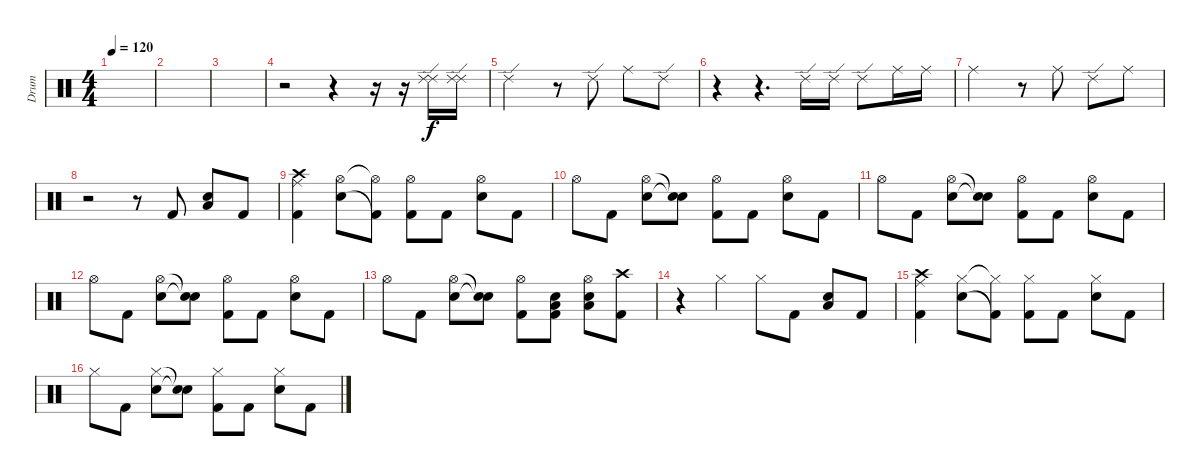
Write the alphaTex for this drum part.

\track ("Drum" "Drum") {instrument percussion}
\staff {score}
\articulation defaults
\ts (4 4)
\tempo 120
\clef neutral
\ks c
|
|
|
r.2 r.4 r.16 r.16 ("Ride (edge) 2" "Ride (edge) 2").16 ("Ride (edge) 2" "Ride (edge) 2").16 |
"Ride (edge) 2".2 r.8 "Ride (edge) 2".8 "Ride (middle)".8 "Ride (edge) 2".8 |
r.4 r.4{d} "Ride (edge) 2".16 "Ride (edge) 2".16 "Ride (edge) 2".8 "Ride (middle)".16 "Ride (middle)".16 |
"Ride (middle)".2 r.8 "Ride (middle)".8 "Ride (edge) 2".8 "Ride (middle)".8 |
r.2 r.8 "Kick (hit) 2".8 ("Electric Snare (hit)" "Low Floor Tom (hit)").8 "Kick (hit) 2".8 |
("Crash high (hit)" "Ride (middle)" "Kick (hit) 2").4 ("Hi-Hat (open)" "Electric Snare (hit)").8 ("Hi-Hat (open)"{t} "Kick (hit) 2"{t}).8 ("Hi-Hat (open)" "Kick (hit) 2").8 "Kick (hit) 2".8 ("Hi-Hat (open)" "Electric Snare (hit)").8 "Kick (hit) 2".8 |
"Hi-Hat (open)".8 "Kick (hit) 2".8 ("Hi-Hat (open)" "Electric Snare (hit)").8 ("Snare (hit)"{t} "Snare (hit)"{t}).8 ("Hi-Hat (open)" "Kick (hit) 2").8 "Kick (hit) 2".8 ("Hi-Hat (open)" "Electric Snare (hit)").8 "Kick (hit) 2".8 |
"Hi-Hat (open)".8 "Kick (hit) 2".8 ("Hi-Hat (open)" "Electric Snare (hit)").8 ("Snare (hit)"{t} "Electric Snare (hit)"{t}).8 ("Hi-Hat (open)" "Kick (hit) 2").8 "Kick (hit) 2".8 ("Hi-Hat (open)" "Electric Snare (hit)").8 "Kick (hit) 2".8 |
"Hi-Hat (open)".8 "Kick (hit) 2".8 ("Hi-Hat (open)" "Electric Snare (hit)").8 ("Snare (hit)"{t} "Snare (hit)"{t}).8 ("Hi-Hat (open)" "Kick (hit) 2").8 "Kick (hit) 2".8 ("Hi-Hat (open)" "Electric Snare (hit)").8 "Kick (hit) 2".8 |
"Hi-Hat (open)".8 "Kick (hit) 2".8 ("Hi-Hat (open)" "Electric Snare (hit)").8 ("Snare (hit)"{t} "Electric Snare (hit)"{t}).8 ("Hi-Hat (open)" "Kick (hit) 2").8 ("Electric Snare (hit)" "Low Floor Tom (hit)" "Kick (hit) 2").8 ("Hi-Hat (open)" "Electric Snare (hit)" "Low Floor Tom (hit)").8 ("Crash high (hit)" "Kick (hit) 2").8 |
r.4 "Hi-Hat (closed)".4 "Hi-Hat (closed)".8 "Kick (hit) 2".8 ("Electric Snare (hit)" "Low Floor Tom (hit)").8 "Kick (hit) 2".8 |
("Crash high (hit)" "Ride (middle)" "Kick (hit) 2").4 ("Hi-Hat (closed)" "Electric Snare (hit)").8 ("Hi-Hat (closed)"{t} "Kick (hit) 2"{t}).8 ("Hi-Hat (closed)" "Kick (hit) 2").8 "Kick (hit) 2".8 ("Hi-Hat (closed)" "Electric Snare (hit)").8 "Kick (hit) 2".8 |
"Hi-Hat (closed)".8 "Kick (hit) 2".8 ("Hi-Hat (closed)" "Electric Snare (hit)").8 ("Snare (hit)"{t} "Snare (hit)"{t}).8 ("Hi-Hat (closed)" "Kick (hit) 2").8 "Kick (hit) 2".8 ("Hi-Hat (closed)" "Electric Snare (hit)").8 "Kick (hit) 2".8
